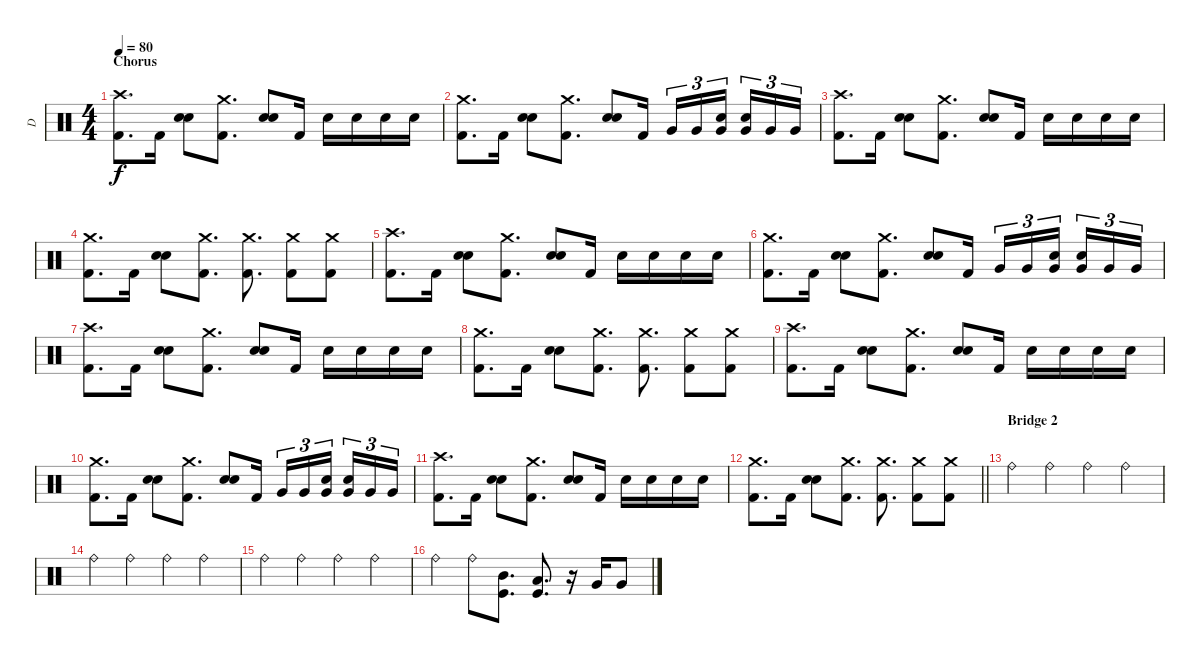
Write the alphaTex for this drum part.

\track ("D" "D") {instrument percussion}
\staff {score}
\articulation defaults
\ts (4 4)
\section ("" "Chorus")
\tempo 80
\clef neutral
\ks c
("Crash high (hit)" "Kick (hit) 2").8{d dy f} "Kick (hit) 2".16 ("Electric Snare (hit)" "Electric Snare (hit)").8 ("Crash medium (hit)" "Kick (hit) 2").8{d} ("Electric Snare (hit)" "Electric Snare (hit)").8 "Kick (hit) 2".16 "Electric Snare (hit)".16 "Electric Snare (hit)".16 "Electric Snare (hit)".16 "Electric Snare (hit)".16 |
("Crash medium (hit)" "Kick (hit) 2").8{d} "Kick (hit) 2".16 ("Electric Snare (hit)" "Electric Snare (hit)").8 ("Crash medium (hit)" "Kick (hit) 2").8{d} ("Electric Snare (hit)" "Electric Snare (hit)").8 "Kick (hit) 2".16 "Very Low Tom (hit)".16{tu (3 2)} "Very Low Tom (hit)".16{tu (3 2)} ("Electric Snare (hit)" "Very Low Tom (hit)").16{tu (3 2) beam splitsecondary} ("Electric Snare (hit)" "Very Low Tom (hit)").16{tu (3 2)} "Very Low Tom (hit)".16{tu (3 2)} "Very Low Tom (hit)".16{tu (3 2)} |
("Crash high (hit)" "Kick (hit) 2").8{d} "Kick (hit) 2".16 ("Electric Snare (hit)" "Electric Snare (hit)").8 ("Crash medium (hit)" "Kick (hit) 2").8{d} ("Electric Snare (hit)" "Electric Snare (hit)").8 "Kick (hit) 2".16 "Electric Snare (hit)".16 "Electric Snare (hit)".16 "Electric Snare (hit)".16 "Electric Snare (hit)".16 |
("Crash medium (hit)" "Kick (hit) 2").8{d} "Kick (hit) 2".16 ("Electric Snare (hit)" "Electric Snare (hit)").8 ("Crash medium (hit)" "Kick (hit) 2").8{d} ("Crash medium (hit)" "Kick (hit) 2").8{d} ("Crash medium (hit)" "Kick (hit) 2").8 ("Crash medium (hit)" "Kick (hit) 2").8 |
("Crash high (hit)" "Kick (hit) 2").8{d} "Kick (hit) 2".16 ("Electric Snare (hit)" "Electric Snare (hit)").8 ("Crash medium (hit)" "Kick (hit) 2").8{d} ("Electric Snare (hit)" "Electric Snare (hit)").8 "Kick (hit) 2".16 "Electric Snare (hit)".16 "Electric Snare (hit)".16 "Electric Snare (hit)".16 "Electric Snare (hit)".16 |
("Crash medium (hit)" "Kick (hit) 2").8{d} "Kick (hit) 2".16 ("Electric Snare (hit)" "Electric Snare (hit)").8 ("Crash medium (hit)" "Kick (hit) 2").8{d} ("Electric Snare (hit)" "Electric Snare (hit)").8 "Kick (hit) 2".16 "Very Low Tom (hit)".16{tu (3 2)} "Very Low Tom (hit)".16{tu (3 2)} ("Electric Snare (hit)" "Very Low Tom (hit)").16{tu (3 2) beam splitsecondary} ("Electric Snare (hit)" "Very Low Tom (hit)").16{tu (3 2)} "Very Low Tom (hit)".16{tu (3 2)} "Very Low Tom (hit)".16{tu (3 2)} |
("Crash high (hit)" "Kick (hit) 2").8{d} "Kick (hit) 2".16 ("Electric Snare (hit)" "Electric Snare (hit)").8 ("Crash medium (hit)" "Kick (hit) 2").8{d} ("Electric Snare (hit)" "Electric Snare (hit)").8 "Kick (hit) 2".16 "Electric Snare (hit)".16 "Electric Snare (hit)".16 "Electric Snare (hit)".16 "Electric Snare (hit)".16 |
("Crash medium (hit)" "Kick (hit) 2").8{d} "Kick (hit) 2".16 ("Electric Snare (hit)" "Electric Snare (hit)").8 ("Crash medium (hit)" "Kick (hit) 2").8{d} ("Crash medium (hit)" "Kick (hit) 2").8{d} ("Crash medium (hit)" "Kick (hit) 2").8 ("Crash medium (hit)" "Kick (hit) 2").8 |
("Crash high (hit)" "Kick (hit) 2").8{d} "Kick (hit) 2".16 ("Electric Snare (hit)" "Electric Snare (hit)").8 ("Crash medium (hit)" "Kick (hit) 2").8{d} ("Electric Snare (hit)" "Electric Snare (hit)").8 "Kick (hit) 2".16 "Electric Snare (hit)".16 "Electric Snare (hit)".16 "Electric Snare (hit)".16 "Electric Snare (hit)".16 |
("Crash medium (hit)" "Kick (hit) 2").8{d} "Kick (hit) 2".16 ("Electric Snare (hit)" "Electric Snare (hit)").8 ("Crash medium (hit)" "Kick (hit) 2").8{d} ("Electric Snare (hit)" "Electric Snare (hit)").8 "Kick (hit) 2".16 "Very Low Tom (hit)".16{tu (3 2)} "Very Low Tom (hit)".16{tu (3 2)} ("Electric Snare (hit)" "Very Low Tom (hit)").16{tu (3 2) beam splitsecondary} ("Electric Snare (hit)" "Very Low Tom (hit)").16{tu (3 2)} "Very Low Tom (hit)".16{tu (3 2)} "Very Low Tom (hit)".16{tu (3 2)} |
("Crash high (hit)" "Kick (hit) 2").8{d} "Kick (hit) 2".16 ("Electric Snare (hit)" "Electric Snare (hit)").8 ("Crash medium (hit)" "Kick (hit) 2").8{d} ("Electric Snare (hit)" "Electric Snare (hit)").8 "Kick (hit) 2".16 "Electric Snare (hit)".16 "Electric Snare (hit)".16 "Electric Snare (hit)".16 "Electric Snare (hit)".16 |
\barLineRight lightlight
("Crash medium (hit)" "Kick (hit) 2").8{d} "Kick (hit) 2".16 ("Electric Snare (hit)" "Electric Snare (hit)").8 ("Crash medium (hit)" "Kick (hit) 2").8{d} ("Crash medium (hit)" "Kick (hit) 2").8{d} ("Crash medium (hit)" "Kick (hit) 2").8 ("Crash medium (hit)" "Kick (hit) 2").8 |
\section ("" "Bridge 2")
"Ride (bell)".4 "Ride (bell)".4 "Ride (bell)".4 "Ride (bell)".4 |
"Ride (bell)".4 "Ride (bell)".4 "Ride (bell)".4 "Ride (bell)".4 |
"Ride (bell)".4 "Ride (bell)".4 "Ride (bell)".4 "Ride (bell)".4 |
"Ride (bell)".4 "Ride (bell)".8 ("Mid Tom (hit)" "Kick (hit)").8{d} ("Low Tom (hit)" "Kick (hit)").8{d} r.16 "Very Low Tom (hit)".16 "Very Low Tom (hit)".8
